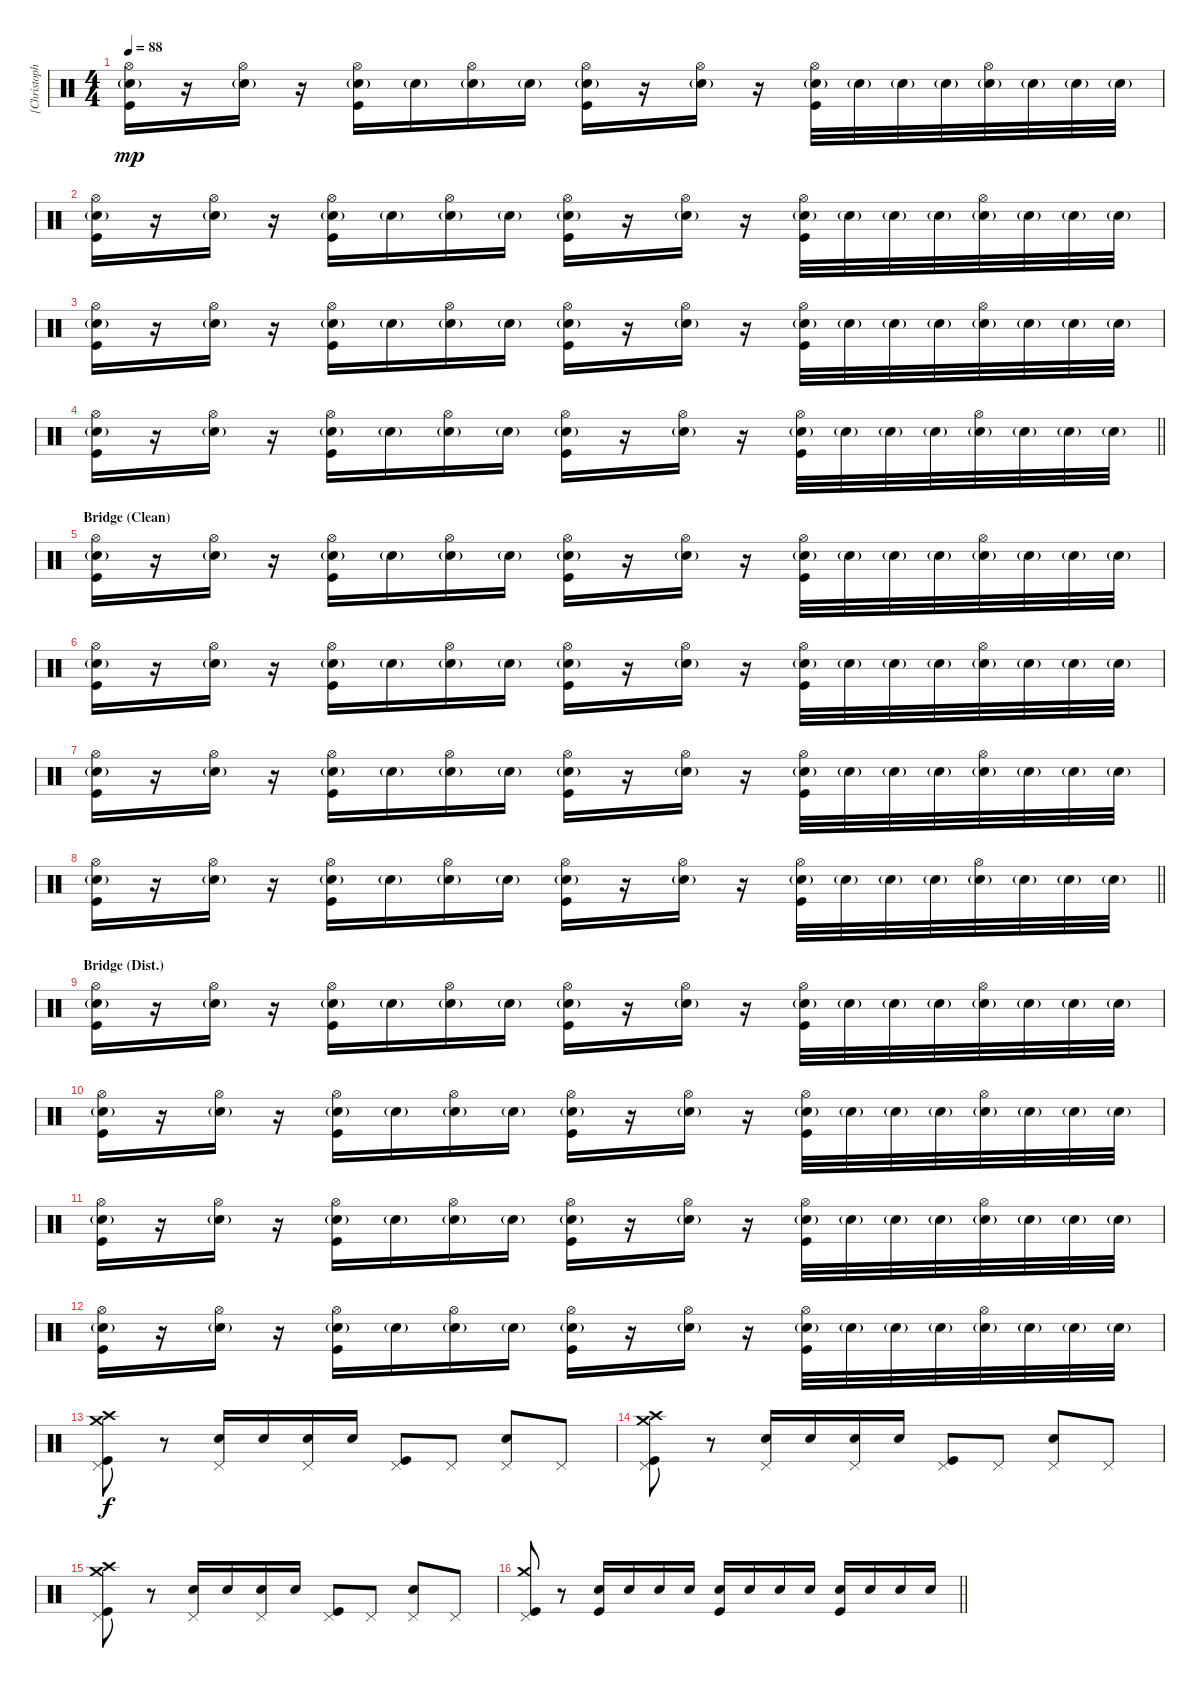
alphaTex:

\track ("[Christoph Schneider]  Drums" "[Christoph") {instrument percussion}
\staff {score}
\articulation defaults
\ts (4 4)
\tempo 88
\clef neutral
\ks c
("Hi-Hat (open)" "Kick (hit)" "Electric Snare (hit)"{g}).16{dy mp} r.16 ("Hi-Hat (open)" "Electric Snare (hit)"{g}).16 r.16 ("Hi-Hat (open)" "Kick (hit)" "Electric Snare (hit)"{g}).16 "Electric Snare (hit)"{g}.16 ("Hi-Hat (open)" "Electric Snare (hit)"{g}).16 "Electric Snare (hit)"{g}.16 ("Hi-Hat (open)" "Kick (hit)" "Electric Snare (hit)"{g}).16 r.16 ("Hi-Hat (open)" "Electric Snare (hit)"{g}).16 r.16 ("Hi-Hat (open)" "Kick (hit)" "Electric Snare (hit)"{g}).32 "Electric Snare (hit)"{g}.32 "Electric Snare (hit)"{g}.32 "Electric Snare (hit)"{g}.32 ("Hi-Hat (open)" "Electric Snare (hit)"{g}).32 "Electric Snare (hit)"{g}.32 "Electric Snare (hit)"{g}.32 "Electric Snare (hit)"{g}.32 |
("Hi-Hat (open)" "Kick (hit)" "Electric Snare (hit)"{g}).16 r.16 ("Hi-Hat (open)" "Electric Snare (hit)"{g}).16 r.16 ("Hi-Hat (open)" "Kick (hit)" "Electric Snare (hit)"{g}).16 "Electric Snare (hit)"{g}.16 ("Hi-Hat (open)" "Electric Snare (hit)"{g}).16 "Electric Snare (hit)"{g}.16 ("Hi-Hat (open)" "Kick (hit)" "Electric Snare (hit)"{g}).16 r.16 ("Hi-Hat (open)" "Electric Snare (hit)"{g}).16 r.16 ("Hi-Hat (open)" "Kick (hit)" "Electric Snare (hit)"{g}).32 "Electric Snare (hit)"{g}.32 "Electric Snare (hit)"{g}.32 "Electric Snare (hit)"{g}.32 ("Hi-Hat (open)" "Electric Snare (hit)"{g}).32 "Electric Snare (hit)"{g}.32 "Electric Snare (hit)"{g}.32 "Electric Snare (hit)"{g}.32 |
("Hi-Hat (open)" "Kick (hit)" "Electric Snare (hit)"{g}).16 r.16 ("Hi-Hat (open)" "Electric Snare (hit)"{g}).16 r.16 ("Hi-Hat (open)" "Kick (hit)" "Electric Snare (hit)"{g}).16 "Electric Snare (hit)"{g}.16 ("Hi-Hat (open)" "Electric Snare (hit)"{g}).16 "Electric Snare (hit)"{g}.16 ("Hi-Hat (open)" "Kick (hit)" "Electric Snare (hit)"{g}).16 r.16 ("Hi-Hat (open)" "Electric Snare (hit)"{g}).16 r.16 ("Hi-Hat (open)" "Kick (hit)" "Electric Snare (hit)"{g}).32 "Electric Snare (hit)"{g}.32 "Electric Snare (hit)"{g}.32 "Electric Snare (hit)"{g}.32 ("Hi-Hat (open)" "Electric Snare (hit)"{g}).32 "Electric Snare (hit)"{g}.32 "Electric Snare (hit)"{g}.32 "Electric Snare (hit)"{g}.32 |
\barLineRight lightlight
("Hi-Hat (open)" "Kick (hit)" "Electric Snare (hit)"{g}).16 r.16 ("Hi-Hat (open)" "Electric Snare (hit)"{g}).16 r.16 ("Hi-Hat (open)" "Kick (hit)" "Electric Snare (hit)"{g}).16 "Electric Snare (hit)"{g}.16 ("Hi-Hat (open)" "Electric Snare (hit)"{g}).16 "Electric Snare (hit)"{g}.16 ("Hi-Hat (open)" "Kick (hit)" "Electric Snare (hit)"{g}).16 r.16 ("Hi-Hat (open)" "Electric Snare (hit)"{g}).16 r.16 ("Hi-Hat (open)" "Kick (hit)" "Electric Snare (hit)"{g}).32 "Electric Snare (hit)"{g}.32 "Electric Snare (hit)"{g}.32 "Electric Snare (hit)"{g}.32 ("Hi-Hat (open)" "Electric Snare (hit)"{g}).32 "Electric Snare (hit)"{g}.32 "Electric Snare (hit)"{g}.32 "Electric Snare (hit)"{g}.32 |
\section ("" "Bridge (Clean)")
("Hi-Hat (open)" "Kick (hit)" "Electric Snare (hit)"{g}).16 r.16 ("Hi-Hat (open)" "Electric Snare (hit)"{g}).16 r.16 ("Hi-Hat (open)" "Kick (hit)" "Electric Snare (hit)"{g}).16 "Electric Snare (hit)"{g}.16 ("Hi-Hat (open)" "Electric Snare (hit)"{g}).16 "Electric Snare (hit)"{g}.16 ("Hi-Hat (open)" "Kick (hit)" "Electric Snare (hit)"{g}).16 r.16 ("Hi-Hat (open)" "Electric Snare (hit)"{g}).16 r.16 ("Hi-Hat (open)" "Kick (hit)" "Electric Snare (hit)"{g}).32 "Electric Snare (hit)"{g}.32 "Electric Snare (hit)"{g}.32 "Electric Snare (hit)"{g}.32 ("Hi-Hat (open)" "Electric Snare (hit)"{g}).32 "Electric Snare (hit)"{g}.32 "Electric Snare (hit)"{g}.32 "Electric Snare (hit)"{g}.32 |
("Hi-Hat (open)" "Kick (hit)" "Electric Snare (hit)"{g}).16 r.16 ("Hi-Hat (open)" "Electric Snare (hit)"{g}).16 r.16 ("Hi-Hat (open)" "Kick (hit)" "Electric Snare (hit)"{g}).16 "Electric Snare (hit)"{g}.16 ("Hi-Hat (open)" "Electric Snare (hit)"{g}).16 "Electric Snare (hit)"{g}.16 ("Hi-Hat (open)" "Kick (hit)" "Electric Snare (hit)"{g}).16 r.16 ("Hi-Hat (open)" "Electric Snare (hit)"{g}).16 r.16 ("Hi-Hat (open)" "Kick (hit)" "Electric Snare (hit)"{g}).32 "Electric Snare (hit)"{g}.32 "Electric Snare (hit)"{g}.32 "Electric Snare (hit)"{g}.32 ("Hi-Hat (open)" "Electric Snare (hit)"{g}).32 "Electric Snare (hit)"{g}.32 "Electric Snare (hit)"{g}.32 "Electric Snare (hit)"{g}.32 |
("Hi-Hat (open)" "Kick (hit)" "Electric Snare (hit)"{g}).16 r.16 ("Hi-Hat (open)" "Electric Snare (hit)"{g}).16 r.16 ("Hi-Hat (open)" "Kick (hit)" "Electric Snare (hit)"{g}).16 "Electric Snare (hit)"{g}.16 ("Hi-Hat (open)" "Electric Snare (hit)"{g}).16 "Electric Snare (hit)"{g}.16 ("Hi-Hat (open)" "Kick (hit)" "Electric Snare (hit)"{g}).16 r.16 ("Hi-Hat (open)" "Electric Snare (hit)"{g}).16 r.16 ("Hi-Hat (open)" "Kick (hit)" "Electric Snare (hit)"{g}).32 "Electric Snare (hit)"{g}.32 "Electric Snare (hit)"{g}.32 "Electric Snare (hit)"{g}.32 ("Hi-Hat (open)" "Electric Snare (hit)"{g}).32 "Electric Snare (hit)"{g}.32 "Electric Snare (hit)"{g}.32 "Electric Snare (hit)"{g}.32 |
\barLineRight lightlight
("Hi-Hat (open)" "Kick (hit)" "Electric Snare (hit)"{g}).16 r.16 ("Hi-Hat (open)" "Electric Snare (hit)"{g}).16 r.16 ("Hi-Hat (open)" "Kick (hit)" "Electric Snare (hit)"{g}).16 "Electric Snare (hit)"{g}.16 ("Hi-Hat (open)" "Electric Snare (hit)"{g}).16 "Electric Snare (hit)"{g}.16 ("Hi-Hat (open)" "Kick (hit)" "Electric Snare (hit)"{g}).16 r.16 ("Hi-Hat (open)" "Electric Snare (hit)"{g}).16 r.16 ("Hi-Hat (open)" "Kick (hit)" "Electric Snare (hit)"{g}).32 "Electric Snare (hit)"{g}.32 "Electric Snare (hit)"{g}.32 "Electric Snare (hit)"{g}.32 ("Hi-Hat (open)" "Electric Snare (hit)"{g}).32 "Electric Snare (hit)"{g}.32 "Electric Snare (hit)"{g}.32 "Electric Snare (hit)"{g}.32 |
\section ("" "Bridge (Dist.)")
("Hi-Hat (open)" "Kick (hit)" "Electric Snare (hit)"{g}).16 r.16 ("Hi-Hat (open)" "Electric Snare (hit)"{g}).16 r.16 ("Hi-Hat (open)" "Kick (hit)" "Electric Snare (hit)"{g}).16 "Electric Snare (hit)"{g}.16 ("Hi-Hat (open)" "Electric Snare (hit)"{g}).16 "Electric Snare (hit)"{g}.16 ("Hi-Hat (open)" "Kick (hit)" "Electric Snare (hit)"{g}).16 r.16 ("Hi-Hat (open)" "Electric Snare (hit)"{g}).16 r.16 ("Hi-Hat (open)" "Kick (hit)" "Electric Snare (hit)"{g}).32 "Electric Snare (hit)"{g}.32 "Electric Snare (hit)"{g}.32 "Electric Snare (hit)"{g}.32 ("Hi-Hat (open)" "Electric Snare (hit)"{g}).32 "Electric Snare (hit)"{g}.32 "Electric Snare (hit)"{g}.32 "Electric Snare (hit)"{g}.32 |
("Hi-Hat (open)" "Kick (hit)" "Electric Snare (hit)"{g}).16 r.16 ("Hi-Hat (open)" "Electric Snare (hit)"{g}).16 r.16 ("Hi-Hat (open)" "Kick (hit)" "Electric Snare (hit)"{g}).16 "Electric Snare (hit)"{g}.16 ("Hi-Hat (open)" "Electric Snare (hit)"{g}).16 "Electric Snare (hit)"{g}.16 ("Hi-Hat (open)" "Kick (hit)" "Electric Snare (hit)"{g}).16 r.16 ("Hi-Hat (open)" "Electric Snare (hit)"{g}).16 r.16 ("Hi-Hat (open)" "Kick (hit)" "Electric Snare (hit)"{g}).32 "Electric Snare (hit)"{g}.32 "Electric Snare (hit)"{g}.32 "Electric Snare (hit)"{g}.32 ("Hi-Hat (open)" "Electric Snare (hit)"{g}).32 "Electric Snare (hit)"{g}.32 "Electric Snare (hit)"{g}.32 "Electric Snare (hit)"{g}.32 |
("Hi-Hat (open)" "Kick (hit)" "Electric Snare (hit)"{g}).16 r.16 ("Hi-Hat (open)" "Electric Snare (hit)"{g}).16 r.16 ("Hi-Hat (open)" "Kick (hit)" "Electric Snare (hit)"{g}).16 "Electric Snare (hit)"{g}.16 ("Hi-Hat (open)" "Electric Snare (hit)"{g}).16 "Electric Snare (hit)"{g}.16 ("Hi-Hat (open)" "Kick (hit)" "Electric Snare (hit)"{g}).16 r.16 ("Hi-Hat (open)" "Electric Snare (hit)"{g}).16 r.16 ("Hi-Hat (open)" "Kick (hit)" "Electric Snare (hit)"{g}).32 "Electric Snare (hit)"{g}.32 "Electric Snare (hit)"{g}.32 "Electric Snare (hit)"{g}.32 ("Hi-Hat (open)" "Electric Snare (hit)"{g}).32 "Electric Snare (hit)"{g}.32 "Electric Snare (hit)"{g}.32 "Electric Snare (hit)"{g}.32 |
("Hi-Hat (open)" "Kick (hit)" "Electric Snare (hit)"{g}).16 r.16 ("Hi-Hat (open)" "Electric Snare (hit)"{g}).16 r.16 ("Hi-Hat (open)" "Kick (hit)" "Electric Snare (hit)"{g}).16 "Electric Snare (hit)"{g}.16 ("Hi-Hat (open)" "Electric Snare (hit)"{g}).16 "Electric Snare (hit)"{g}.16 ("Hi-Hat (open)" "Kick (hit)" "Electric Snare (hit)"{g}).16 r.16 ("Hi-Hat (open)" "Electric Snare (hit)"{g}).16 r.16 ("Hi-Hat (open)" "Kick (hit)" "Electric Snare (hit)"{g}).32 "Electric Snare (hit)"{g}.32 "Electric Snare (hit)"{g}.32 "Electric Snare (hit)"{g}.32 ("Hi-Hat (open)" "Electric Snare (hit)"{g}).32 "Electric Snare (hit)"{g}.32 "Electric Snare (hit)"{g}.32 "Electric Snare (hit)"{g}.32 |
("Crash medium (hit)" "Pedal Hi-Hat (hit)" "Crash high (hit)" "Kick (hit)").8{dy f} r.8 ("Pedal Hi-Hat (hit)" "Electric Snare (hit)").16 "Electric Snare (hit)".16 ("Pedal Hi-Hat (hit)" "Electric Snare (hit)").16 "Electric Snare (hit)".16 ("Pedal Hi-Hat (hit)" "Kick (hit)").8 "Pedal Hi-Hat (hit)".8 ("Pedal Hi-Hat (hit)" "Electric Snare (hit)").8 "Pedal Hi-Hat (hit)".8 |
("Crash medium (hit)" "Pedal Hi-Hat (hit)" "Crash high (hit)" "Kick (hit)").8 r.8 ("Pedal Hi-Hat (hit)" "Electric Snare (hit)").16 "Electric Snare (hit)".16 ("Pedal Hi-Hat (hit)" "Electric Snare (hit)").16 "Electric Snare (hit)".16 ("Pedal Hi-Hat (hit)" "Kick (hit)").8 "Pedal Hi-Hat (hit)".8 ("Pedal Hi-Hat (hit)" "Electric Snare (hit)").8 "Pedal Hi-Hat (hit)".8 |
("Crash medium (hit)" "Pedal Hi-Hat (hit)" "Crash high (hit)" "Kick (hit)").8 r.8 ("Pedal Hi-Hat (hit)" "Electric Snare (hit)").16 "Electric Snare (hit)".16 ("Pedal Hi-Hat (hit)" "Electric Snare (hit)").16 "Electric Snare (hit)".16 ("Pedal Hi-Hat (hit)" "Kick (hit)").8 "Pedal Hi-Hat (hit)".8 ("Pedal Hi-Hat (hit)" "Electric Snare (hit)").8 "Pedal Hi-Hat (hit)".8 |
\barLineRight lightlight
("Crash medium (hit)" "Pedal Hi-Hat (hit)" "Kick (hit)").8 r.8 ("Electric Snare (hit)" "Kick (hit)").16 "Electric Snare (hit)".16 "Electric Snare (hit)".16 "Electric Snare (hit)".16 ("Electric Snare (hit)" "Kick (hit)").16 "Electric Snare (hit)".16 "Electric Snare (hit)".16 "Electric Snare (hit)".16 ("Electric Snare (hit)" "Kick (hit)").16 "Electric Snare (hit)".16 "Electric Snare (hit)".16 "Electric Snare (hit)".16
